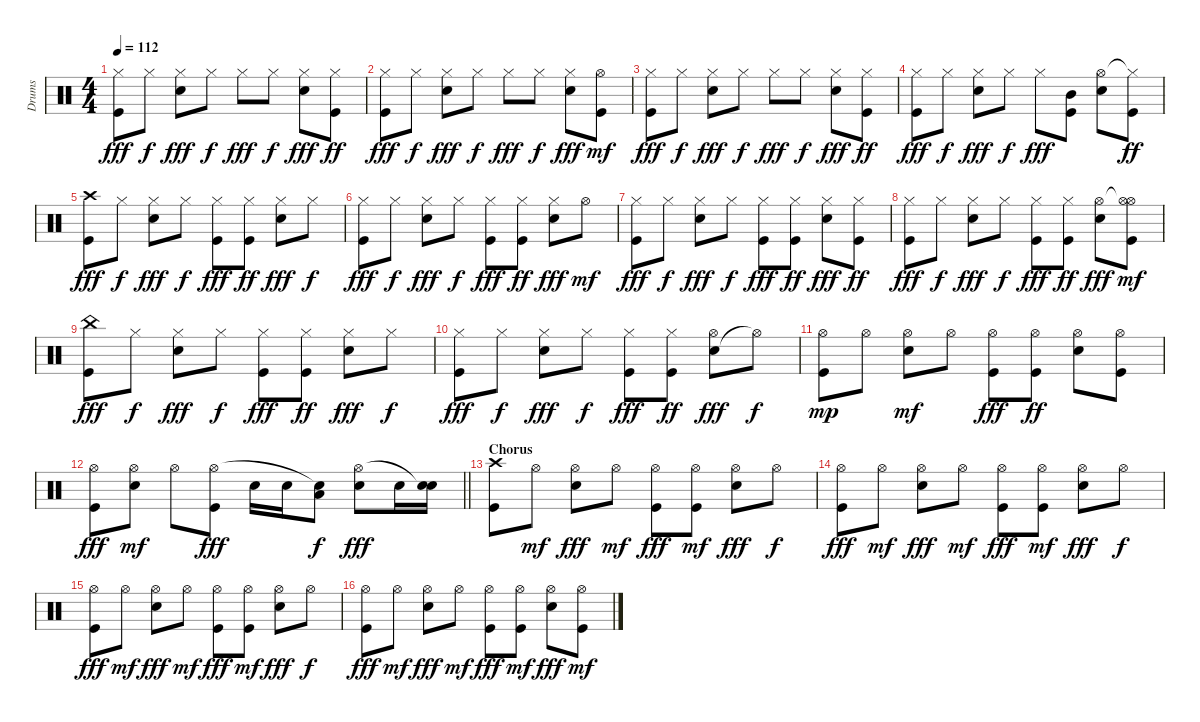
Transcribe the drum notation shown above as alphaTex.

\track ("Drums" "Drums") {instrument percussion}
\staff {score}
\articulation defaults
\ts (4 4)
\tempo 112
\clef neutral
\ks c
("Kick (hit)" "Hi-Hat (closed)").8{dy fff} "Hi-Hat (closed)".8{dy f} ("Snare (hit) 2" "Hi-Hat (closed)").8{dy fff} "Hi-Hat (closed)".8{dy f} "Hi-Hat (closed)".8{dy fff} "Hi-Hat (closed)".8{dy f} ("Snare (hit) 2" "Hi-Hat (closed)").8{dy fff} ("Kick (hit)" "Hi-Hat (closed)").8{dy ff} |
("Kick (hit)" "Hi-Hat (closed)").8{dy fff} "Hi-Hat (closed)".8{dy f} ("Snare (hit) 2" "Hi-Hat (closed)").8{dy fff} "Hi-Hat (closed)".8{dy f} "Hi-Hat (closed)".8{dy fff} "Hi-Hat (closed)".8{dy f} ("Snare (hit) 2" "Hi-Hat (closed)").8{dy fff} ("Kick (hit)" "Hi-Hat (open)").8{dy mf} |
("Kick (hit)" "Hi-Hat (closed)").8{dy fff} "Hi-Hat (closed)".8{dy f} ("Snare (hit) 2" "Hi-Hat (closed)").8{dy fff} "Hi-Hat (closed)".8{dy f} "Hi-Hat (closed)".8{dy fff} "Hi-Hat (closed)".8{dy f} ("Snare (hit) 2" "Hi-Hat (closed)").8{dy fff} ("Kick (hit)" "Hi-Hat (closed)").8{dy ff} |
("Kick (hit)" "Hi-Hat (closed)").8{dy fff} "Hi-Hat (closed)".8{dy f} ("Snare (hit) 2" "Hi-Hat (closed)").8{dy fff} "Hi-Hat (closed)".8{dy f} "Hi-Hat (closed)".8{dy fff} ("Kick (hit)" "Mid Tom (hit)").8 ("Snare (hit) 2" "Hi-Hat (open)").8 ("Kick (hit)" "Hi-Hat (closed)"{t}).8{dy ff} |
("Kick (hit)" "Crash high (hit)").8{dy fff} "Hi-Hat (closed)".8{dy f} ("Snare (hit) 2" "Hi-Hat (closed)").8{dy fff} "Hi-Hat (closed)".8{dy f} ("Kick (hit)" "Hi-Hat (closed)").8{dy fff} ("Kick (hit)" "Hi-Hat (closed)").8{dy ff} ("Snare (hit) 2" "Hi-Hat (closed)").8{dy fff} "Hi-Hat (closed)".8{dy f} |
("Kick (hit)" "Hi-Hat (closed)").8{dy fff} "Hi-Hat (closed)".8{dy f} ("Snare (hit) 2" "Hi-Hat (closed)").8{dy fff} "Hi-Hat (closed)".8{dy f} ("Kick (hit)" "Hi-Hat (closed)").8{dy fff} ("Kick (hit)" "Hi-Hat (closed)").8{dy ff} ("Snare (hit) 2" "Hi-Hat (closed)").8{dy fff} "Hi-Hat (open)".8{dy mf} |
("Kick (hit)" "Hi-Hat (closed)").8{dy fff} "Hi-Hat (closed)".8{dy f} ("Snare (hit) 2" "Hi-Hat (closed)").8{dy fff} "Hi-Hat (closed)".8{dy f} ("Kick (hit)" "Hi-Hat (closed)").8{dy fff} ("Kick (hit)" "Hi-Hat (closed)").8{dy ff} ("Snare (hit) 2" "Hi-Hat (closed)").8{dy fff} ("Kick (hit)" "Hi-Hat (closed)").8{dy ff} |
("Kick (hit)" "Hi-Hat (closed)").8{dy fff} "Hi-Hat (closed)".8{dy f} ("Snare (hit) 2" "Hi-Hat (closed)").8{dy fff} "Hi-Hat (closed)".8{dy f} ("Kick (hit)" "Hi-Hat (closed)").8{dy fff} ("Kick (hit)" "Hi-Hat (closed)").8{dy ff} ("Snare (hit) 2" "Hi-Hat (open)").8{dy fff} ("Kick (hit)" "Hi-Hat (open)"{t} "Hi-Hat (open)").8{dy mf} |
("Kick (hit)" "China (hit)").8{dy fff} "Hi-Hat (closed)".8{dy f} ("Snare (hit) 2" "Hi-Hat (closed)").8{dy fff} "Hi-Hat (closed)".8{dy f} ("Kick (hit)" "Hi-Hat (closed)").8{dy fff} ("Kick (hit)" "Hi-Hat (closed)").8{dy ff} ("Snare (hit) 2" "Hi-Hat (closed)").8{dy fff} "Hi-Hat (closed)".8{dy f} |
("Kick (hit)" "Hi-Hat (closed)").8{dy fff} "Hi-Hat (closed)".8{dy f} ("Snare (hit) 2" "Hi-Hat (closed)").8{dy fff} "Hi-Hat (closed)".8{dy f} ("Kick (hit)" "Hi-Hat (closed)").8{dy fff} ("Kick (hit)" "Hi-Hat (closed)").8{dy ff} ("Snare (hit) 2" "Hi-Hat (open)").8{dy fff} "Hi-Hat (open)"{t}.8{dy f} |
("Kick (hit)" "Hi-Hat (open)").8{dy mp} "Hi-Hat (open)".8 ("Snare (hit) 2" "Hi-Hat (open)").8{dy mf} "Hi-Hat (open)".8 ("Kick (hit)" "Hi-Hat (open)").8{dy fff} ("Kick (hit)" "Hi-Hat (open)").8{dy ff} ("Snare (hit) 2" "Hi-Hat (open)").8 ("Kick (hit)" "Hi-Hat (open)").8 |
\barLineRight lightlight
("Kick (hit)" "Hi-Hat (open)").8{dy fff} ("Snare (hit) 2" "Hi-Hat (open)").8{dy mf} "Hi-Hat (open)".8 ("Kick (hit)" "Hi-Hat (open)").8{dy fff} "Snare (hit) 2".16 "Snare (hit) 2".16 ("Low Tom (hit)" "Snare (hit)"{t}).8{dy f} ("Snare (hit) 2" "Hi-Hat (open)").8{dy fff} "Snare (hit) 2".16 ("Snare (hit) 2" "Snare (hit)"{t}).16 |
\section ("" "Chorus")
("Kick (hit)" "Crash high (hit)").8 "Hi-Hat (open)".8{dy mf} ("Snare (hit) 2" "Hi-Hat (open)").8{dy fff} "Hi-Hat (open)".8{dy mf} ("Kick (hit)" "Hi-Hat (open)").8{dy fff} ("Kick (hit)" "Hi-Hat (open)").8{dy mf} ("Snare (hit) 2" "Hi-Hat (open)").8{dy fff} "Hi-Hat (open)".8{dy f} |
("Kick (hit)" "Hi-Hat (open)").8{dy fff} "Hi-Hat (open)".8{dy mf} ("Snare (hit) 2" "Hi-Hat (open)").8{dy fff} "Hi-Hat (open)".8{dy mf} ("Kick (hit)" "Hi-Hat (open)").8{dy fff} ("Kick (hit)" "Hi-Hat (open)").8{dy mf} ("Snare (hit) 2" "Hi-Hat (open)").8{dy fff} "Hi-Hat (open)".8{dy f} |
("Kick (hit)" "Hi-Hat (open)").8{dy fff} "Hi-Hat (open)".8{dy mf} ("Snare (hit) 2" "Hi-Hat (open)").8{dy fff} "Hi-Hat (open)".8{dy mf} ("Kick (hit)" "Hi-Hat (open)").8{dy fff} ("Kick (hit)" "Hi-Hat (open)").8{dy mf} ("Snare (hit) 2" "Hi-Hat (open)").8{dy fff} "Hi-Hat (open)".8{dy f} |
("Kick (hit)" "Hi-Hat (open)").8{dy fff} "Hi-Hat (open)".8{dy mf} ("Snare (hit) 2" "Hi-Hat (open)").8{dy fff} "Hi-Hat (open)".8{dy mf} ("Kick (hit)" "Hi-Hat (open)").8{dy fff} ("Kick (hit)" "Hi-Hat (open)").8{dy mf} ("Snare (hit) 2" "Hi-Hat (open)").8{dy fff} ("Kick (hit)" "Hi-Hat (open)").8{dy mf}
